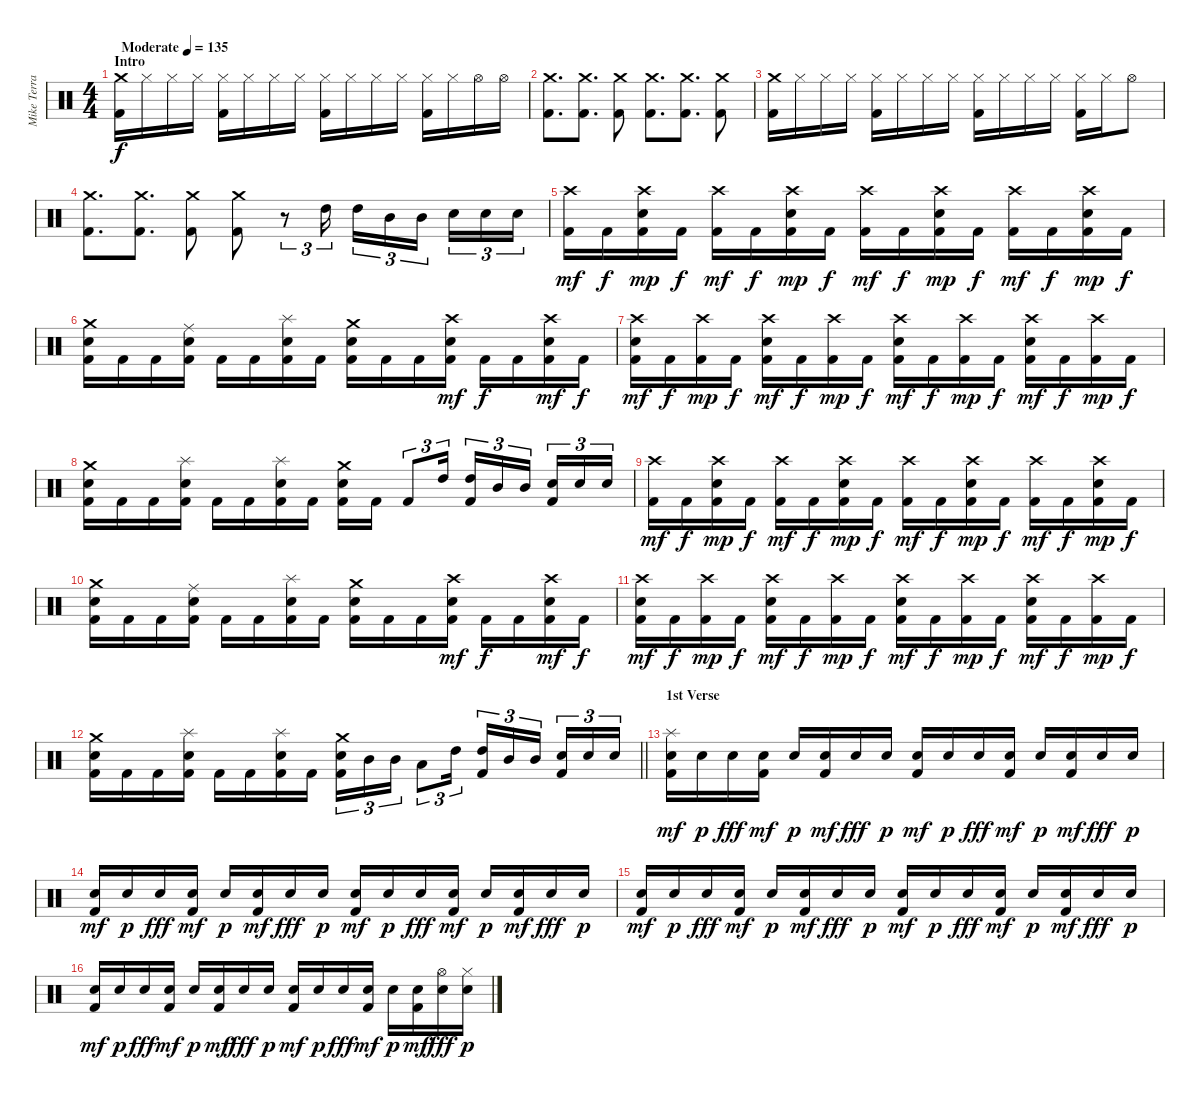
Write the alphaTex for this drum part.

\track ("Mike Terrana" "Mike Terra") {instrument percussion}
\staff {score}
\articulation defaults
\ts (4 4)
\section ("" "Intro")
\tempo (135 "Moderate")
\clef neutral
\ks c
("Crash medium (hit)" "Kick (hit) 2").16{dy f} "Hi-Hat (closed)".16 "Hi-Hat (closed)".16 "Hi-Hat (closed)".16 ("Hi-Hat (closed)" "Kick (hit) 2").16 "Hi-Hat (closed)".16 "Hi-Hat (closed)".16 "Hi-Hat (closed)".16 ("Hi-Hat (closed)" "Kick (hit) 2").16 "Hi-Hat (closed)".16 "Hi-Hat (closed)".16 "Hi-Hat (closed)".16 ("Hi-Hat (closed)" "Kick (hit) 2").16 "Hi-Hat (closed)".16 "Hi-Hat (open)".16 "Hi-Hat (open)".16 |
("Crash medium (hit)" "Kick (hit) 2").8{d} ("Crash medium (hit)" "Kick (hit) 2").8{d} ("Crash medium (hit)" "Kick (hit) 2").8 ("Crash medium (hit)" "Kick (hit) 2").8{d} ("Crash medium (hit)" "Kick (hit) 2").8{d} ("Crash medium (hit)" "Kick (hit) 2").8 |
("Crash medium (hit)" "Kick (hit) 2").16 "Hi-Hat (closed)".16 "Hi-Hat (closed)".16 "Hi-Hat (closed)".16 ("Hi-Hat (closed)" "Kick (hit) 2").16 "Hi-Hat (closed)".16 "Hi-Hat (closed)".16 "Hi-Hat (closed)".16 ("Hi-Hat (closed)" "Kick (hit) 2").16 "Hi-Hat (closed)".16 "Hi-Hat (closed)".16 "Hi-Hat (closed)".16 ("Hi-Hat (closed)" "Kick (hit) 2").16 "Hi-Hat (closed)".16 "Hi-Hat (open)".8 |
("Crash medium (hit)" "Kick (hit) 2").8{d} ("Crash medium (hit)" "Kick (hit) 2").8{d} ("Crash medium (hit)" "Kick (hit) 2").8 ("Crash medium (hit)" "Kick (hit) 2").8 r.8{tu (3 2)} "High Tom (hit)".16{tu (3 2)} "High Tom (hit)".16{tu (3 2)} "Mid Tom (hit)".16{tu (3 2)} "Mid Tom (hit)".16{tu (3 2) beam splitsecondary} "Snare (hit) 2".16{tu (3 2)} "Snare (hit) 2".16{tu (3 2)} "Snare (hit) 2".16{tu (3 2)} |
("Crash high (hit)" "Kick (hit) 2").16{dy mf} "Kick (hit) 2".16{dy f} ("Crash high (hit)" "Snare (hit) 2" "Kick (hit) 2").16{dy mp} "Kick (hit) 2".16{dy f} ("Crash high (hit)" "Kick (hit) 2").16{dy mf} "Kick (hit) 2".16{dy f} ("Crash high (hit)" "Snare (hit) 2" "Kick (hit) 2").16{dy mp} "Kick (hit) 2".16{dy f} ("Crash high (hit)" "Kick (hit) 2").16{dy mf} "Kick (hit) 2".16{dy f} ("Crash high (hit)" "Snare (hit) 2" "Kick (hit) 2").16{dy mp} "Kick (hit) 2".16{dy f} ("Crash high (hit)" "Kick (hit) 2").16{dy mf} "Kick (hit) 2".16{dy f} ("Crash high (hit)" "Snare (hit) 2" "Kick (hit) 2").16{dy mp} "Kick (hit) 2".16{dy f} |
("Crash medium (hit)" "Snare (hit) 2" "Kick (hit) 2").16 "Kick (hit) 2".16 "Kick (hit) 2".16 ("Ride (middle)" "Snare (hit) 2" "Kick (hit) 2").16 "Kick (hit) 2".16 "Kick (hit) 2".16 ("Splash (hit)" "Snare (hit) 2" "Kick (hit) 2").16 "Kick (hit) 2".16 ("Crash medium (hit)" "Snare (hit) 2" "Kick (hit) 2").16 "Kick (hit) 2".16 "Kick (hit) 2".16 ("Crash high (hit)" "Snare (hit) 2" "Kick (hit) 2").16{dy mf} "Kick (hit) 2".16{dy f} "Kick (hit) 2".16 ("Crash high (hit)" "Snare (hit) 2" "Kick (hit) 2").16{dy mf} "Kick (hit) 2".16{dy f} |
("Crash high (hit)" "Snare (hit) 2" "Kick (hit) 2").16{dy mf} "Kick (hit) 2".16{dy f} ("Crash high (hit)" "Kick (hit) 2").16{dy mp} "Kick (hit) 2".16{dy f} ("Crash high (hit)" "Snare (hit) 2" "Kick (hit) 2").16{dy mf} "Kick (hit) 2".16{dy f} ("Crash high (hit)" "Kick (hit) 2").16{dy mp} "Kick (hit) 2".16{dy f} ("Crash high (hit)" "Snare (hit) 2" "Kick (hit) 2").16{dy mf} "Kick (hit) 2".16{dy f} ("Crash high (hit)" "Kick (hit) 2").16{dy mp} "Kick (hit) 2".16{dy f} ("Crash high (hit)" "Snare (hit) 2" "Kick (hit) 2").16{dy mf} "Kick (hit) 2".16{dy f} ("Crash high (hit)" "Kick (hit) 2").16{dy mp} "Kick (hit) 2".16{dy f} |
("Crash medium (hit)" "Snare (hit) 2" "Kick (hit) 2").16 "Kick (hit) 2".16 "Kick (hit) 2".16 ("Splash (hit)" "Snare (hit) 2" "Kick (hit) 2").16 "Kick (hit) 2".16 "Kick (hit) 2".16 ("Splash (hit)" "Snare (hit) 2" "Kick (hit) 2").16 "Kick (hit) 2".16 ("Crash medium (hit)" "Snare (hit) 2" "Kick (hit) 2").16 "Kick (hit) 2".16 "Kick (hit) 2".8{tu (3 2)} "High Tom (hit)".16{tu (3 2)} ("High Tom (hit)" "Kick (hit) 2").16{tu (3 2)} "Mid Tom (hit)".16{tu (3 2)} "Mid Tom (hit)".16{tu (3 2) beam splitsecondary} ("Snare (hit) 2" "Kick (hit) 2").16{tu (3 2)} "Snare (hit) 2".16{tu (3 2)} "Snare (hit) 2".16{tu (3 2)} |
("Crash high (hit)" "Kick (hit) 2").16{dy mf} "Kick (hit) 2".16{dy f} ("Crash high (hit)" "Snare (hit) 2" "Kick (hit) 2").16{dy mp} "Kick (hit) 2".16{dy f} ("Crash high (hit)" "Kick (hit) 2").16{dy mf} "Kick (hit) 2".16{dy f} ("Crash high (hit)" "Snare (hit) 2" "Kick (hit) 2").16{dy mp} "Kick (hit) 2".16{dy f} ("Crash high (hit)" "Kick (hit) 2").16{dy mf} "Kick (hit) 2".16{dy f} ("Crash high (hit)" "Snare (hit) 2" "Kick (hit) 2").16{dy mp} "Kick (hit) 2".16{dy f} ("Crash high (hit)" "Kick (hit) 2").16{dy mf} "Kick (hit) 2".16{dy f} ("Crash high (hit)" "Snare (hit) 2" "Kick (hit) 2").16{dy mp} "Kick (hit) 2".16{dy f} |
("Crash medium (hit)" "Snare (hit) 2" "Kick (hit) 2").16 "Kick (hit) 2".16 "Kick (hit) 2".16 ("Ride (middle)" "Snare (hit) 2" "Kick (hit) 2").16 "Kick (hit) 2".16 "Kick (hit) 2".16 ("Splash (hit)" "Snare (hit) 2" "Kick (hit) 2").16 "Kick (hit) 2".16 ("Crash medium (hit)" "Snare (hit) 2" "Kick (hit) 2").16 "Kick (hit) 2".16 "Kick (hit) 2".16 ("Crash high (hit)" "Snare (hit) 2" "Kick (hit) 2").16{dy mf} "Kick (hit) 2".16{dy f} "Kick (hit) 2".16 ("Crash high (hit)" "Snare (hit) 2" "Kick (hit) 2").16{dy mf} "Kick (hit) 2".16{dy f} |
("Crash high (hit)" "Snare (hit) 2" "Kick (hit) 2").16{dy mf} "Kick (hit) 2".16{dy f} ("Crash high (hit)" "Kick (hit) 2").16{dy mp} "Kick (hit) 2".16{dy f} ("Crash high (hit)" "Snare (hit) 2" "Kick (hit) 2").16{dy mf} "Kick (hit) 2".16{dy f} ("Crash high (hit)" "Kick (hit) 2").16{dy mp} "Kick (hit) 2".16{dy f} ("Crash high (hit)" "Snare (hit) 2" "Kick (hit) 2").16{dy mf} "Kick (hit) 2".16{dy f} ("Crash high (hit)" "Kick (hit) 2").16{dy mp} "Kick (hit) 2".16{dy f} ("Crash high (hit)" "Snare (hit) 2" "Kick (hit) 2").16{dy mf} "Kick (hit) 2".16{dy f} ("Crash high (hit)" "Kick (hit) 2").16{dy mp} "Kick (hit) 2".16{dy f} |
\barLineRight lightlight
("Crash medium (hit)" "Snare (hit) 2" "Kick (hit) 2").16 "Kick (hit) 2".16 "Kick (hit) 2".16 ("Splash (hit)" "Snare (hit) 2" "Kick (hit) 2").16 "Kick (hit) 2".16 "Kick (hit) 2".16 ("Splash (hit)" "Snare (hit) 2" "Kick (hit) 2").16 "Kick (hit) 2".16 ("Crash medium (hit)" "Snare (hit) 2" "Kick (hit) 2").16{tu (3 2)} "Mid Tom (hit)".16{tu (3 2)} "Mid Tom (hit)".16{tu (3 2)} "Low Tom (hit)".8{tu (3 2)} "High Tom (hit)".16{tu (3 2)} ("High Tom (hit)" "Kick (hit) 2").16{tu (3 2)} "Mid Tom (hit)".16{tu (3 2)} "Mid Tom (hit)".16{tu (3 2) beam splitsecondary} ("Snare (hit) 2" "Kick (hit) 2").16{tu (3 2)} "Snare (hit) 2".16{tu (3 2)} "Snare (hit) 2".16{tu (3 2)} |
\section ("" "1st Verse")
("Splash (hit)" "Snare (hit) 2" "Kick (hit) 2").16{dy mf} "Snare (hit) 2".16{dy p} "Snare (hit) 2".16{dy fff} ("Snare (hit) 2" "Kick (hit) 2").16{dy mf} "Snare (hit) 2".16{dy p} ("Snare (hit) 2" "Kick (hit) 2").16{dy mf} "Snare (hit) 2".16{dy fff} "Snare (hit) 2".16{dy p} ("Snare (hit) 2" "Kick (hit) 2").16{dy mf} "Snare (hit) 2".16{dy p} "Snare (hit) 2".16{dy fff} ("Snare (hit) 2" "Kick (hit) 2").16{dy mf} "Snare (hit) 2".16{dy p} ("Snare (hit) 2" "Kick (hit) 2").16{dy mf} "Snare (hit) 2".16{dy fff} "Snare (hit) 2".16{dy p} |
("Snare (hit) 2" "Kick (hit) 2").16{dy mf} "Snare (hit) 2".16{dy p} "Snare (hit) 2".16{dy fff} ("Snare (hit) 2" "Kick (hit) 2").16{dy mf} "Snare (hit) 2".16{dy p} ("Snare (hit) 2" "Kick (hit) 2").16{dy mf} "Snare (hit) 2".16{dy fff} "Snare (hit) 2".16{dy p} ("Snare (hit) 2" "Kick (hit) 2").16{dy mf} "Snare (hit) 2".16{dy p} "Snare (hit) 2".16{dy fff} ("Snare (hit) 2" "Kick (hit) 2").16{dy mf} "Snare (hit) 2".16{dy p} ("Snare (hit) 2" "Kick (hit) 2").16{dy mf} "Snare (hit) 2".16{dy fff} "Snare (hit) 2".16{dy p} |
("Snare (hit) 2" "Kick (hit) 2").16{dy mf} "Snare (hit) 2".16{dy p} "Snare (hit) 2".16{dy fff} ("Snare (hit) 2" "Kick (hit) 2").16{dy mf} "Snare (hit) 2".16{dy p} ("Snare (hit) 2" "Kick (hit) 2").16{dy mf} "Snare (hit) 2".16{dy fff} "Snare (hit) 2".16{dy p} ("Snare (hit) 2" "Kick (hit) 2").16{dy mf} "Snare (hit) 2".16{dy p} "Snare (hit) 2".16{dy fff} ("Snare (hit) 2" "Kick (hit) 2").16{dy mf} "Snare (hit) 2".16{dy p} ("Snare (hit) 2" "Kick (hit) 2").16{dy mf} "Snare (hit) 2".16{dy fff} "Snare (hit) 2".16{dy p} |
("Snare (hit) 2" "Kick (hit) 2").16{dy mf} "Snare (hit) 2".16{dy p} "Snare (hit) 2".16{dy fff} ("Snare (hit) 2" "Kick (hit) 2").16{dy mf} "Snare (hit) 2".16{dy p} ("Snare (hit) 2" "Kick (hit) 2").16{dy mf} "Snare (hit) 2".16{dy fff} "Snare (hit) 2".16{dy p} ("Snare (hit) 2" "Kick (hit) 2").16{dy mf} "Snare (hit) 2".16{dy p} "Snare (hit) 2".16{dy fff} ("Snare (hit) 2" "Kick (hit) 2").16{dy mf} "Snare (hit) 2".16{dy p} ("Snare (hit) 2" "Kick (hit) 2").16{dy mf} ("Hi-Hat (open)" "Snare (hit) 2").16{dy fff} ("Hi-Hat (closed)" "Snare (hit) 2").16{dy p}
